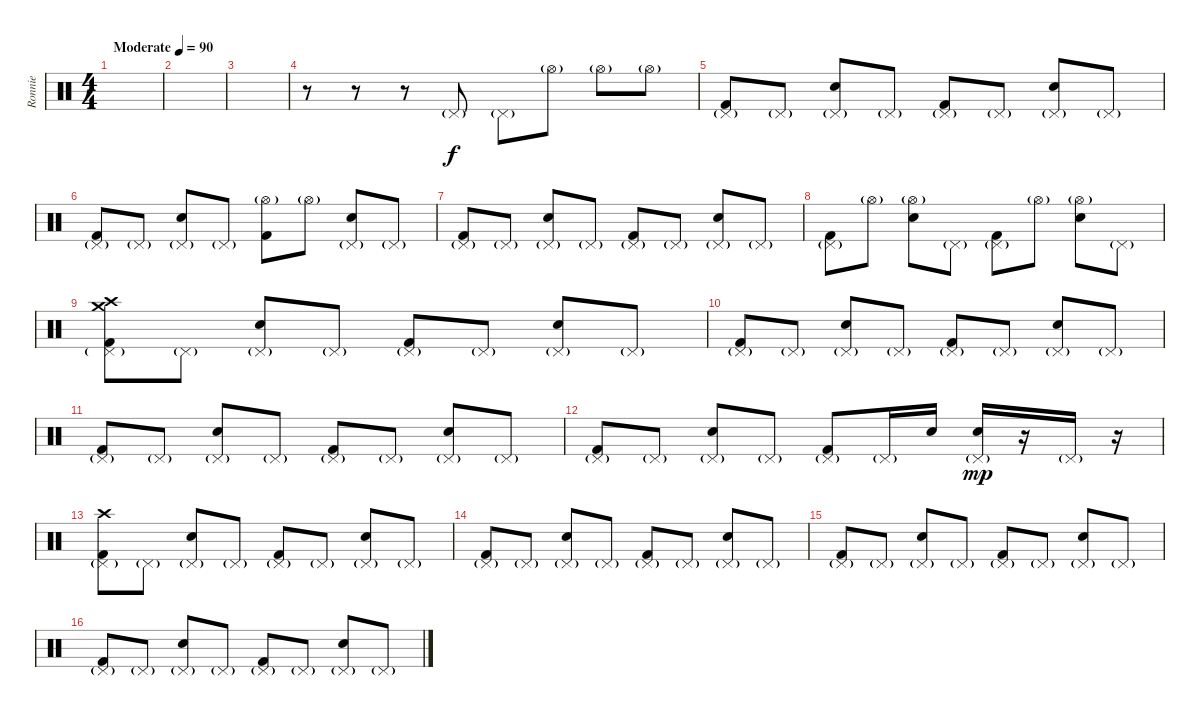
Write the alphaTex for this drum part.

\track ("Ronnie" "Ronnie") {instrument percussion}
\staff {score}
\articulation defaults
\ts (4 4)
\tempo (90 "Moderate")
\clef neutral
\ks c
|
|
|
r.8 r.8 r.8 "Pedal Hi-Hat (hit)"{g}.8 "Pedal Hi-Hat (hit)"{g}.8 "Hi-Hat (open)"{g}.8 "Hi-Hat (open)"{g}.8 "Hi-Hat (open)"{g}.8 |
("Pedal Hi-Hat (hit)"{g} "Kick (hit) 2").8 "Pedal Hi-Hat (hit)"{g}.8 ("Pedal Hi-Hat (hit)"{g} "Electric Snare (hit)").8 "Pedal Hi-Hat (hit)"{g}.8 ("Pedal Hi-Hat (hit)"{g} "Kick (hit) 2").8 "Pedal Hi-Hat (hit)"{g}.8 ("Pedal Hi-Hat (hit)"{g} "Electric Snare (hit)").8 "Pedal Hi-Hat (hit)"{g}.8 |
("Pedal Hi-Hat (hit)"{g} "Kick (hit) 2").8 "Pedal Hi-Hat (hit)"{g}.8 ("Pedal Hi-Hat (hit)"{g} "Electric Snare (hit)").8 "Pedal Hi-Hat (hit)"{g}.8 ("Hi-Hat (open)"{g} "Kick (hit) 2").8 "Hi-Hat (open)"{g}.8 ("Pedal Hi-Hat (hit)"{g} "Electric Snare (hit)").8 "Pedal Hi-Hat (hit)"{g}.8 |
("Pedal Hi-Hat (hit)"{g} "Kick (hit) 2").8 "Pedal Hi-Hat (hit)"{g}.8 ("Pedal Hi-Hat (hit)"{g} "Electric Snare (hit)").8 "Pedal Hi-Hat (hit)"{g}.8 ("Pedal Hi-Hat (hit)"{g} "Kick (hit) 2").8 "Pedal Hi-Hat (hit)"{g}.8 ("Pedal Hi-Hat (hit)"{g} "Electric Snare (hit)").8 "Pedal Hi-Hat (hit)"{g}.8 |
("Pedal Hi-Hat (hit)"{g} "Kick (hit) 2").8 "Hi-Hat (open)"{g}.8 ("Hi-Hat (open)"{g} "Electric Snare (hit)").8 "Pedal Hi-Hat (hit)"{g}.8 ("Pedal Hi-Hat (hit)"{g} "Kick (hit) 2").8 "Hi-Hat (open)"{g}.8 ("Hi-Hat (open)"{g} "Electric Snare (hit)").8 "Pedal Hi-Hat (hit)"{g}.8 |
("Pedal Hi-Hat (hit)"{g} "Crash high (hit)" "Crash medium (hit)" "Kick (hit) 2").8 "Pedal Hi-Hat (hit)"{g}.8 ("Pedal Hi-Hat (hit)"{g} "Electric Snare (hit)").8 "Pedal Hi-Hat (hit)"{g}.8 ("Pedal Hi-Hat (hit)"{g} "Kick (hit) 2").8 "Pedal Hi-Hat (hit)"{g}.8 ("Pedal Hi-Hat (hit)"{g} "Electric Snare (hit)").8 "Pedal Hi-Hat (hit)"{g}.8 |
("Pedal Hi-Hat (hit)"{g} "Kick (hit) 2").8 "Pedal Hi-Hat (hit)"{g}.8 ("Pedal Hi-Hat (hit)"{g} "Electric Snare (hit)").8 "Pedal Hi-Hat (hit)"{g}.8 ("Pedal Hi-Hat (hit)"{g} "Kick (hit) 2").8 "Pedal Hi-Hat (hit)"{g}.8 ("Pedal Hi-Hat (hit)"{g} "Electric Snare (hit)").8 "Pedal Hi-Hat (hit)"{g}.8 |
("Pedal Hi-Hat (hit)"{g} "Kick (hit) 2").8 "Pedal Hi-Hat (hit)"{g}.8 ("Pedal Hi-Hat (hit)"{g} "Electric Snare (hit)").8 "Pedal Hi-Hat (hit)"{g}.8 ("Pedal Hi-Hat (hit)"{g} "Kick (hit) 2").8 "Pedal Hi-Hat (hit)"{g}.8 ("Pedal Hi-Hat (hit)"{g} "Electric Snare (hit)").8 "Pedal Hi-Hat (hit)"{g}.8 |
("Pedal Hi-Hat (hit)"{g} "Kick (hit) 2").8 "Pedal Hi-Hat (hit)"{g}.8 ("Pedal Hi-Hat (hit)"{g} "Electric Snare (hit)").8 "Pedal Hi-Hat (hit)"{g}.8 ("Pedal Hi-Hat (hit)"{g} "Kick (hit) 2").8 "Pedal Hi-Hat (hit)"{g}.16 "Electric Snare (hit)".16{dy f} ("Pedal Hi-Hat (hit)"{g} "Electric Snare (hit)").16{dy mp} r.16 "Pedal Hi-Hat (hit)"{g}.16 r.16 |
("Pedal Hi-Hat (hit)"{g} "Crash high (hit)" "Kick (hit) 2").8 "Pedal Hi-Hat (hit)"{g}.8 ("Pedal Hi-Hat (hit)"{g} "Electric Snare (hit)").8 "Pedal Hi-Hat (hit)"{g}.8 ("Pedal Hi-Hat (hit)"{g} "Kick (hit) 2").8 "Pedal Hi-Hat (hit)"{g}.8 ("Pedal Hi-Hat (hit)"{g} "Electric Snare (hit)").8 "Pedal Hi-Hat (hit)"{g}.8 |
("Pedal Hi-Hat (hit)"{g} "Kick (hit) 2").8 "Pedal Hi-Hat (hit)"{g}.8 ("Pedal Hi-Hat (hit)"{g} "Electric Snare (hit)").8 "Pedal Hi-Hat (hit)"{g}.8 ("Pedal Hi-Hat (hit)"{g} "Kick (hit) 2").8 "Pedal Hi-Hat (hit)"{g}.8 ("Pedal Hi-Hat (hit)"{g} "Electric Snare (hit)").8 "Pedal Hi-Hat (hit)"{g}.8 |
("Pedal Hi-Hat (hit)"{g} "Kick (hit) 2").8 "Pedal Hi-Hat (hit)"{g}.8 ("Pedal Hi-Hat (hit)"{g} "Electric Snare (hit)").8 "Pedal Hi-Hat (hit)"{g}.8 ("Pedal Hi-Hat (hit)"{g} "Kick (hit) 2").8 "Pedal Hi-Hat (hit)"{g}.8 ("Pedal Hi-Hat (hit)"{g} "Electric Snare (hit)").8 "Pedal Hi-Hat (hit)"{g}.8 |
("Pedal Hi-Hat (hit)"{g} "Kick (hit) 2").8 "Pedal Hi-Hat (hit)"{g}.8 ("Pedal Hi-Hat (hit)"{g} "Electric Snare (hit)").8 "Pedal Hi-Hat (hit)"{g}.8 ("Pedal Hi-Hat (hit)"{g} "Kick (hit) 2").8 "Pedal Hi-Hat (hit)"{g}.8 ("Pedal Hi-Hat (hit)"{g} "Electric Snare (hit)").8 "Pedal Hi-Hat (hit)"{g}.8
